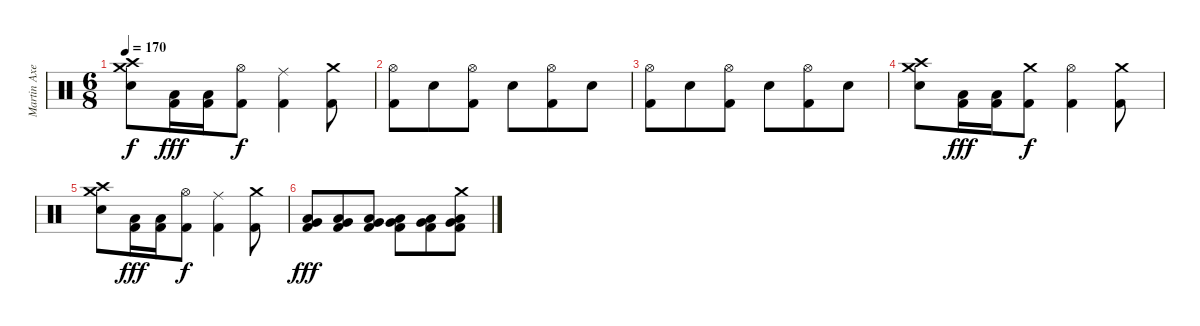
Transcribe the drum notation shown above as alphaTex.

\track ("Martin Axenrot" "Martin Axe") {instrument percussion}
\staff
\articulation defaults
\ts (6 8)
\tempo 170
\clef neutral
\ks c
("Crash high (hit)" "Crash medium (hit)" "Snare (hit) 2").8{dy f} ("Low Tom (hit)" "Kick (hit) 2").16{dy fff} ("Low Tom (hit)" "Kick (hit) 2").16 ("Hi-Hat (open)" "Kick (hit) 2").8{dy f} ("Ride (middle)" "Kick (hit) 2").4 ("Crash medium (hit)" "Kick (hit) 2").8 |
("Hi-Hat (open)" "Kick (hit) 2").8 "Snare (hit) 2".8 ("Hi-Hat (open)" "Kick (hit) 2").8 "Snare (hit) 2".8 ("Hi-Hat (open)" "Kick (hit) 2").8 "Snare (hit) 2".8 |
("Hi-Hat (open)" "Kick (hit) 2").8 "Snare (hit) 2".8 ("Hi-Hat (open)" "Kick (hit) 2").8 "Snare (hit) 2".8 ("Hi-Hat (open)" "Kick (hit) 2").8 "Snare (hit) 2".8 |
("Crash high (hit)" "Crash medium (hit)" "Snare (hit) 2").8 ("Low Tom (hit)" "Kick (hit) 2").16{dy fff} ("Low Tom (hit)" "Kick (hit) 2").16 ("Crash medium (hit)" "Kick (hit) 2").8{dy f} ("Hi-Hat (open)" "Kick (hit) 2").4 ("Crash medium (hit)" "Kick (hit) 2").8 |
("Crash high (hit)" "Crash medium (hit)" "Snare (hit) 2").8 ("Low Tom (hit)" "Kick (hit) 2").16{dy fff} ("Low Tom (hit)" "Kick (hit) 2").16 ("Hi-Hat (open)" "Kick (hit) 2").8{dy f} ("Ride (middle)" "Kick (hit) 2").4 ("Crash medium (hit)" "Kick (hit) 2").8 |
("Very Low Tom (hit)" "Low Tom (hit)" "Kick (hit) 2").8{dy fff} ("Very Low Tom (hit)" "Low Tom (hit)" "Kick (hit) 2").8 ("Very Low Tom (hit)" "Low Tom (hit)" "Kick (hit) 2").8 ("Very Low Tom (hit)" "Low Tom (hit)" "Kick (hit) 2").8 ("Very Low Tom (hit)" "Low Tom (hit)" "Kick (hit) 2").8 ("Crash medium (hit)" "Very Low Tom (hit)" "Low Tom (hit)" "Kick (hit) 2").8
